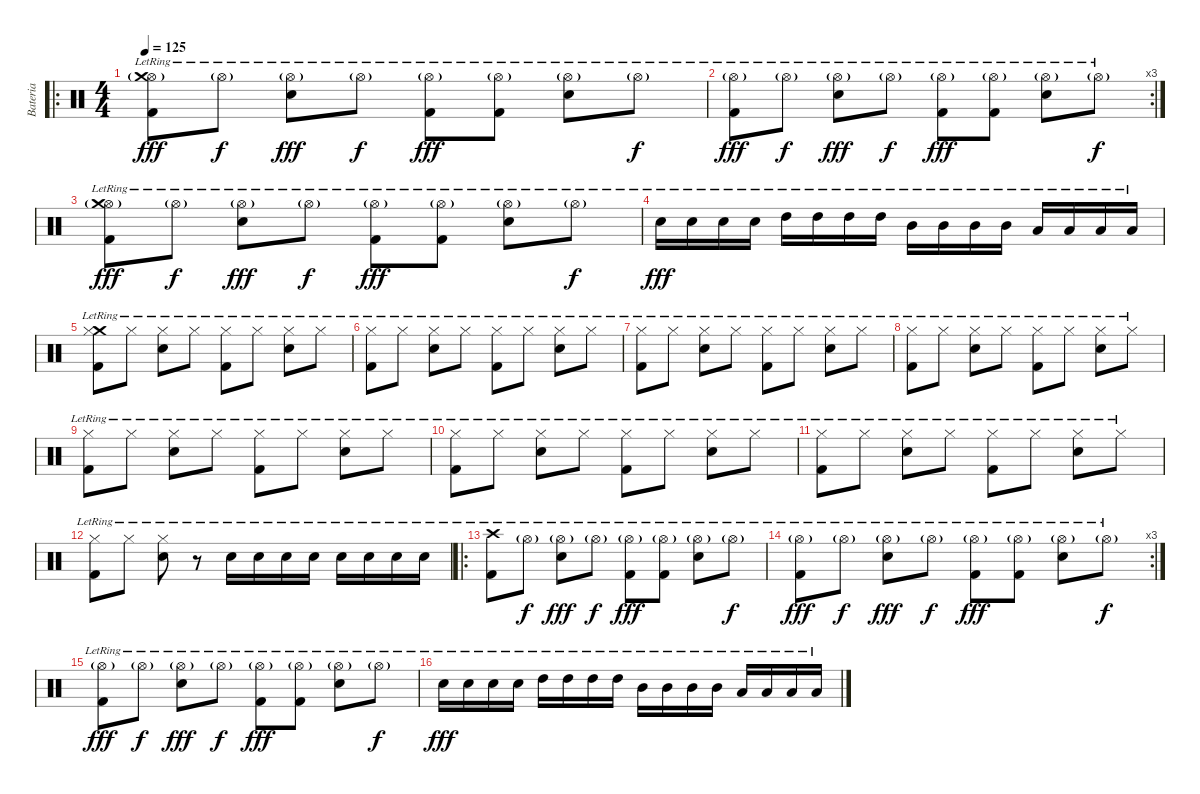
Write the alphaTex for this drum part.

\track ("Bateria" "Bateria") {instrument percussion}
\staff {score}
\articulation defaults
\ro
\ts (4 4)
\tempo 125
\clef neutral
\ks c
("Hi-Hat (open)"{g lr} "Kick (hit) 2"{lr} "Crash medium (hit)"{lr}).8{dy fff} "Hi-Hat (open)"{g lr}.8{dy f} ("Hi-Hat (open)"{g lr} "Snare (hit) 2"{lr}).8{dy fff} "Hi-Hat (open)"{g lr}.8{dy f} ("Hi-Hat (open)"{g lr} "Kick (hit) 2"{lr}).8{dy fff} ("Hi-Hat (open)"{g lr} "Kick (hit) 2"{lr}).8 ("Hi-Hat (open)"{g lr} "Snare (hit) 2"{lr}).8 "Hi-Hat (open)"{g lr}.8{dy f} |
\rc 3
("Hi-Hat (open)"{g lr} "Kick (hit) 2"{lr}).8{dy fff} "Hi-Hat (open)"{g lr}.8{dy f} ("Hi-Hat (open)"{g lr} "Snare (hit) 2"{lr}).8{dy fff} "Hi-Hat (open)"{g lr}.8{dy f} ("Hi-Hat (open)"{g lr} "Kick (hit) 2"{lr}).8{dy fff} ("Hi-Hat (open)"{g lr} "Kick (hit) 2"{lr}).8 ("Hi-Hat (open)"{g lr} "Snare (hit) 2"{lr}).8 "Hi-Hat (open)"{g lr}.8{dy f} |
("Hi-Hat (open)"{g lr} "Kick (hit) 2"{lr} "Crash medium (hit)"{lr}).8{dy fff} "Hi-Hat (open)"{g lr}.8{dy f} ("Hi-Hat (open)"{g lr} "Snare (hit) 2"{lr}).8{dy fff} "Hi-Hat (open)"{g lr}.8{dy f} ("Hi-Hat (open)"{g lr} "Kick (hit) 2"{lr}).8{dy fff} ("Hi-Hat (open)"{g lr} "Kick (hit) 2"{lr}).8 ("Hi-Hat (open)"{g lr} "Snare (hit) 2"{lr}).8 "Hi-Hat (open)"{g lr}.8{dy f} |
"Snare (hit) 2"{lr}.16{dy fff} "Snare (hit) 2"{lr}.16 "Snare (hit) 2"{lr}.16 "Snare (hit) 2"{lr}.16 "High Tom (hit)"{lr}.16 "High Tom (hit)"{lr}.16 "High Tom (hit)"{lr}.16 "High Tom (hit)"{lr}.16 "Mid Tom (hit)"{lr}.16 "Mid Tom (hit)"{lr}.16 "Mid Tom (hit)"{lr}.16 "Mid Tom (hit)"{lr}.16 "Low Tom (hit)"{lr}.16 "Low Tom (hit)"{lr}.16 "Low Tom (hit)"{lr}.16 "Low Tom (hit)"{lr}.16 |
("Kick (hit) 2"{lr} "Crash medium (hit)"{lr} "Hi-Hat (closed)"{lr}).8 "Hi-Hat (closed)"{lr}.8 ("Snare (hit) 2"{lr} "Hi-Hat (closed)"{lr}).8 "Hi-Hat (closed)"{lr}.8 ("Kick (hit) 2"{lr} "Hi-Hat (closed)"{lr}).8 "Hi-Hat (closed)"{lr}.8 ("Snare (hit) 2"{lr} "Hi-Hat (closed)"{lr}).8 "Hi-Hat (closed)"{lr}.8 |
("Kick (hit) 2"{lr} "Hi-Hat (closed)"{lr}).8 "Hi-Hat (closed)"{lr}.8 ("Snare (hit) 2"{lr} "Hi-Hat (closed)"{lr}).8 "Hi-Hat (closed)"{lr}.8 ("Kick (hit) 2"{lr} "Hi-Hat (closed)"{lr}).8 "Hi-Hat (closed)"{lr}.8 ("Snare (hit) 2"{lr} "Hi-Hat (closed)"{lr}).8 "Hi-Hat (closed)"{lr}.8 |
("Kick (hit) 2"{lr} "Hi-Hat (closed)"{lr}).8 "Hi-Hat (closed)"{lr}.8 ("Snare (hit) 2"{lr} "Hi-Hat (closed)"{lr}).8 "Hi-Hat (closed)"{lr}.8 ("Kick (hit) 2"{lr} "Hi-Hat (closed)"{lr}).8 "Hi-Hat (closed)"{lr}.8 ("Snare (hit) 2"{lr} "Hi-Hat (closed)"{lr}).8 "Hi-Hat (closed)"{lr}.8 |
("Kick (hit) 2"{lr} "Hi-Hat (closed)"{lr}).8 "Hi-Hat (closed)"{lr}.8 ("Snare (hit) 2"{lr} "Hi-Hat (closed)"{lr}).8 "Hi-Hat (closed)"{lr}.8 ("Kick (hit) 2"{lr} "Hi-Hat (closed)"{lr}).8 "Hi-Hat (closed)"{lr}.8 ("Snare (hit) 2"{lr} "Hi-Hat (closed)"{lr}).8 "Hi-Hat (closed)"{lr}.8 |
("Kick (hit) 2"{lr} "Hi-Hat (closed)"{lr}).8 "Hi-Hat (closed)"{lr}.8 ("Snare (hit) 2"{lr} "Hi-Hat (closed)"{lr}).8 "Hi-Hat (closed)"{lr}.8 ("Kick (hit) 2"{lr} "Hi-Hat (closed)"{lr}).8 "Hi-Hat (closed)"{lr}.8 ("Snare (hit) 2"{lr} "Hi-Hat (closed)"{lr}).8 "Hi-Hat (closed)"{lr}.8 |
("Kick (hit) 2"{lr} "Hi-Hat (closed)"{lr}).8 "Hi-Hat (closed)"{lr}.8 ("Snare (hit) 2"{lr} "Hi-Hat (closed)"{lr}).8 "Hi-Hat (closed)"{lr}.8 ("Kick (hit) 2"{lr} "Hi-Hat (closed)"{lr}).8 "Hi-Hat (closed)"{lr}.8 ("Snare (hit) 2"{lr} "Hi-Hat (closed)"{lr}).8 "Hi-Hat (closed)"{lr}.8 |
("Kick (hit) 2"{lr} "Hi-Hat (closed)"{lr}).8 "Hi-Hat (closed)"{lr}.8 ("Snare (hit) 2"{lr} "Hi-Hat (closed)"{lr}).8 "Hi-Hat (closed)"{lr}.8 ("Kick (hit) 2"{lr} "Hi-Hat (closed)"{lr}).8 "Hi-Hat (closed)"{lr}.8 ("Snare (hit) 2"{lr} "Hi-Hat (closed)"{lr}).8 "Hi-Hat (closed)"{lr}.8 |
("Hi-Hat (closed)"{lr} "Kick (hit) 2"{lr}).8 "Hi-Hat (closed)"{lr}.8 ("Snare (hit) 2"{lr} "Hi-Hat (closed)"{lr}).8 r.8 "Snare (hit) 2"{lr}.16 "Snare (hit) 2"{lr}.16 "Snare (hit) 2"{lr}.16 "Snare (hit) 2"{lr}.16 "Snare (hit) 2"{lr}.16 "Snare (hit) 2"{lr}.16 "Snare (hit) 2"{lr}.16 "Snare (hit) 2"{lr}.16 |
\ro
("Crash high (hit)"{lr} "Kick (hit) 2"{lr}).8 "Hi-Hat (open)"{g lr}.8{dy f} ("Hi-Hat (open)"{g lr} "Snare (hit) 2"{lr}).8{dy fff} "Hi-Hat (open)"{g lr}.8{dy f} ("Hi-Hat (open)"{g lr} "Kick (hit) 2"{lr}).8{dy fff} ("Hi-Hat (open)"{g lr} "Kick (hit) 2"{lr}).8 ("Hi-Hat (open)"{g lr} "Snare (hit) 2"{lr}).8 "Hi-Hat (open)"{g lr}.8{dy f} |
\rc 3
("Hi-Hat (open)"{g lr} "Kick (hit) 2"{lr}).8{dy fff} "Hi-Hat (open)"{g lr}.8{dy f} ("Hi-Hat (open)"{g lr} "Snare (hit) 2"{lr}).8{dy fff} "Hi-Hat (open)"{g lr}.8{dy f} ("Hi-Hat (open)"{g lr} "Kick (hit) 2"{lr}).8{dy fff} ("Hi-Hat (open)"{g lr} "Kick (hit) 2"{lr}).8 ("Hi-Hat (open)"{g lr} "Snare (hit) 2"{lr}).8 "Hi-Hat (open)"{g lr}.8{dy f} |
("Hi-Hat (open)"{g lr} "Kick (hit) 2"{lr}).8{dy fff} "Hi-Hat (open)"{g lr}.8{dy f} ("Hi-Hat (open)"{g lr} "Snare (hit) 2"{lr}).8{dy fff} "Hi-Hat (open)"{g lr}.8{dy f} ("Hi-Hat (open)"{g lr} "Kick (hit) 2"{lr}).8{dy fff} ("Hi-Hat (open)"{g lr} "Kick (hit) 2"{lr}).8 ("Hi-Hat (open)"{g lr} "Snare (hit) 2"{lr}).8 "Hi-Hat (open)"{g lr}.8{dy f} |
"Snare (hit) 2"{lr}.16{dy fff} "Snare (hit) 2"{lr}.16 "Snare (hit) 2"{lr}.16 "Snare (hit) 2"{lr}.16 "High Tom (hit)"{lr}.16 "High Tom (hit)"{lr}.16 "High Tom (hit)"{lr}.16 "High Tom (hit)"{lr}.16 "Mid Tom (hit)"{lr}.16 "Mid Tom (hit)"{lr}.16 "Mid Tom (hit)"{lr}.16 "Mid Tom (hit)"{lr}.16 "Low Tom (hit)"{lr}.16 "Low Tom (hit)"{lr}.16 "Low Tom (hit)"{lr}.16 "Low Tom (hit)"{lr}.16
